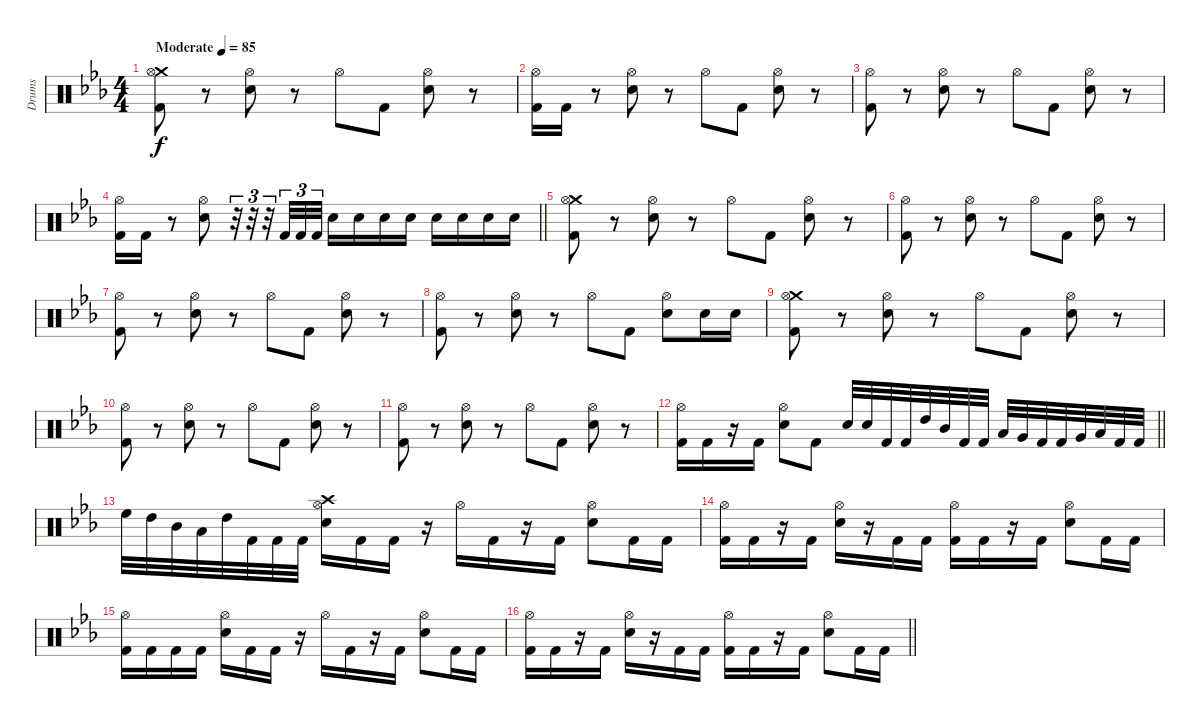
\track ("Drums" "Drums") {instrument percussion}
\staff {score}
\articulation defaults
\ts (4 4)
\section ("" "")
\tempo (85 "Moderate")
\clef neutral
\ks cminor
("Crash medium (hit)" "Hi-Hat (open)" "Kick (hit) 2").8{dy f} r.8 ("Hi-Hat (open)" "Electric Snare (hit)").8 r.8 "Hi-Hat (open)".8 "Kick (hit) 2".8 ("Hi-Hat (open)" "Electric Snare (hit)").8 r.8 |
("Hi-Hat (open)" "Kick (hit) 2").16 "Kick (hit) 2".16 r.8 ("Hi-Hat (open)" "Electric Snare (hit)").8 r.8 "Hi-Hat (open)".8 "Kick (hit) 2".8 ("Hi-Hat (open)" "Electric Snare (hit)").8 r.8 |
("Hi-Hat (open)" "Kick (hit) 2").8 r.8 ("Hi-Hat (open)" "Electric Snare (hit)").8 r.8 "Hi-Hat (open)".8 "Kick (hit) 2".8 ("Hi-Hat (open)" "Electric Snare (hit)").8 r.8 |
\barLineRight lightlight
("Hi-Hat (open)" "Kick (hit) 2").16 "Kick (hit) 2".16 r.8 ("Hi-Hat (open)" "Electric Snare (hit)").8 r.32{tu (3 2)} r.32{tu (3 2)} r.32{tu (3 2)} "Kick (hit) 2".32{tu (3 2)} "Kick (hit) 2".32{tu (3 2)} "Kick (hit) 2".32{tu (3 2)} "Electric Snare (hit)".16 "Electric Snare (hit)".16 "Electric Snare (hit)".16 "Electric Snare (hit)".16 "Electric Snare (hit)".16 "Electric Snare (hit)".16 "Electric Snare (hit)".16 "Electric Snare (hit)".16 |
\section ("" "")
("Crash medium (hit)" "Hi-Hat (open)" "Kick (hit) 2").8 r.8 ("Hi-Hat (open)" "Electric Snare (hit)").8 r.8 "Hi-Hat (open)".8 "Kick (hit) 2".8 ("Hi-Hat (open)" "Electric Snare (hit)").8 r.8 |
("Hi-Hat (open)" "Kick (hit) 2").8 r.8 ("Hi-Hat (open)" "Electric Snare (hit)").8 r.8 "Hi-Hat (open)".8 "Kick (hit) 2".8 ("Hi-Hat (open)" "Electric Snare (hit)").8 r.8 |
("Hi-Hat (open)" "Kick (hit) 2").8 r.8 ("Hi-Hat (open)" "Electric Snare (hit)").8 r.8 "Hi-Hat (open)".8 "Kick (hit) 2".8 ("Hi-Hat (open)" "Electric Snare (hit)").8 r.8 |
("Hi-Hat (open)" "Kick (hit) 2").8 r.8 ("Hi-Hat (open)" "Electric Snare (hit)").8 r.8 "Hi-Hat (open)".8 "Kick (hit) 2".8 ("Hi-Hat (open)" "Electric Snare (hit)").8 "Electric Snare (hit)".16 "Electric Snare (hit)".16 |
("Crash medium (hit)" "Hi-Hat (open)" "Kick (hit) 2").8 r.8 ("Hi-Hat (open)" "Electric Snare (hit)").8 r.8 "Hi-Hat (open)".8 "Kick (hit) 2".8 ("Hi-Hat (open)" "Electric Snare (hit)").8 r.8 |
("Hi-Hat (open)" "Kick (hit) 2").8 r.8 ("Hi-Hat (open)" "Electric Snare (hit)").8 r.8 "Hi-Hat (open)".8 "Kick (hit) 2".8 ("Hi-Hat (open)" "Electric Snare (hit)").8 r.8 |
("Hi-Hat (open)" "Kick (hit) 2").8 r.8 ("Hi-Hat (open)" "Electric Snare (hit)").8 r.8 "Hi-Hat (open)".8 "Kick (hit) 2".8 ("Hi-Hat (open)" "Electric Snare (hit)").8 r.8 |
\barLineRight lightlight
("Hi-Hat (open)" "Kick (hit) 2").16 "Kick (hit) 2".16 r.16 "Kick (hit) 2".16 ("Hi-Hat (open)" "Electric Snare (hit)").8 "Kick (hit) 2".8 "Electric Snare (hit)".32 "Electric Snare (hit)".32 "Kick (hit) 2".32 "Kick (hit) 2".32 "High Tom (hit)".32 "Mid Tom (hit)".32 "Kick (hit) 2".32 "Kick (hit) 2".32 "Low Tom (hit)".32 "Very Low Tom (hit)".32 "Kick (hit) 2".32 "Kick (hit) 2".32 "Very Low Tom (hit)".32 "Low Floor Tom (hit)".32 "Kick (hit) 2".32 "Kick (hit) 2".32 |
\section ("" "")
"High Floor Tom (hit)".32 "High Tom (hit)".32 "Mid Tom (hit)".32 "Low Tom (hit)".32 "High Tom (hit)".32 "Kick (hit) 2".32 "Kick (hit) 2".32 "Kick (hit) 2".32 ("Crash high (hit)" "Hi-Hat (open)" "Electric Snare (hit)").16 "Kick (hit) 2".16 "Kick (hit) 2".16 r.16 "Hi-Hat (open)".16 "Kick (hit) 2".16 r.16 "Kick (hit) 2".16 ("Hi-Hat (open)" "Electric Snare (hit)").8 "Kick (hit) 2".16 "Kick (hit) 2".16 |
("Hi-Hat (open)" "Kick (hit) 2").16 "Kick (hit) 2".16 r.16 "Kick (hit) 2".16 ("Hi-Hat (open)" "Electric Snare (hit)").16 r.16 "Kick (hit) 2".16 "Kick (hit) 2".16 ("Hi-Hat (open)" "Kick (hit) 2").16 "Kick (hit) 2".16 r.16 "Kick (hit) 2".16 ("Hi-Hat (open)" "Electric Snare (hit)").8 "Kick (hit) 2".16 "Kick (hit) 2".16 |
("Hi-Hat (open)" "Kick (hit) 2").16 "Kick (hit) 2".16 "Kick (hit) 2".16 "Kick (hit) 2".16 ("Hi-Hat (open)" "Electric Snare (hit)").16 "Kick (hit) 2".16 "Kick (hit) 2".16 r.16 "Hi-Hat (open)".16 "Kick (hit) 2".16 r.16 "Kick (hit) 2".16 ("Hi-Hat (open)" "Electric Snare (hit)").8 "Kick (hit) 2".16 "Kick (hit) 2".16 |
\barLineRight lightlight
("Hi-Hat (open)" "Kick (hit) 2").16 "Kick (hit) 2".16 r.16 "Kick (hit) 2".16 ("Hi-Hat (open)" "Electric Snare (hit)").16 r.16 "Kick (hit) 2".16 "Kick (hit) 2".16 ("Hi-Hat (open)" "Kick (hit) 2").16 "Kick (hit) 2".16 r.16 "Kick (hit) 2".16 ("Hi-Hat (open)" "Electric Snare (hit)").8 "Kick (hit) 2".16 "Kick (hit) 2".16
